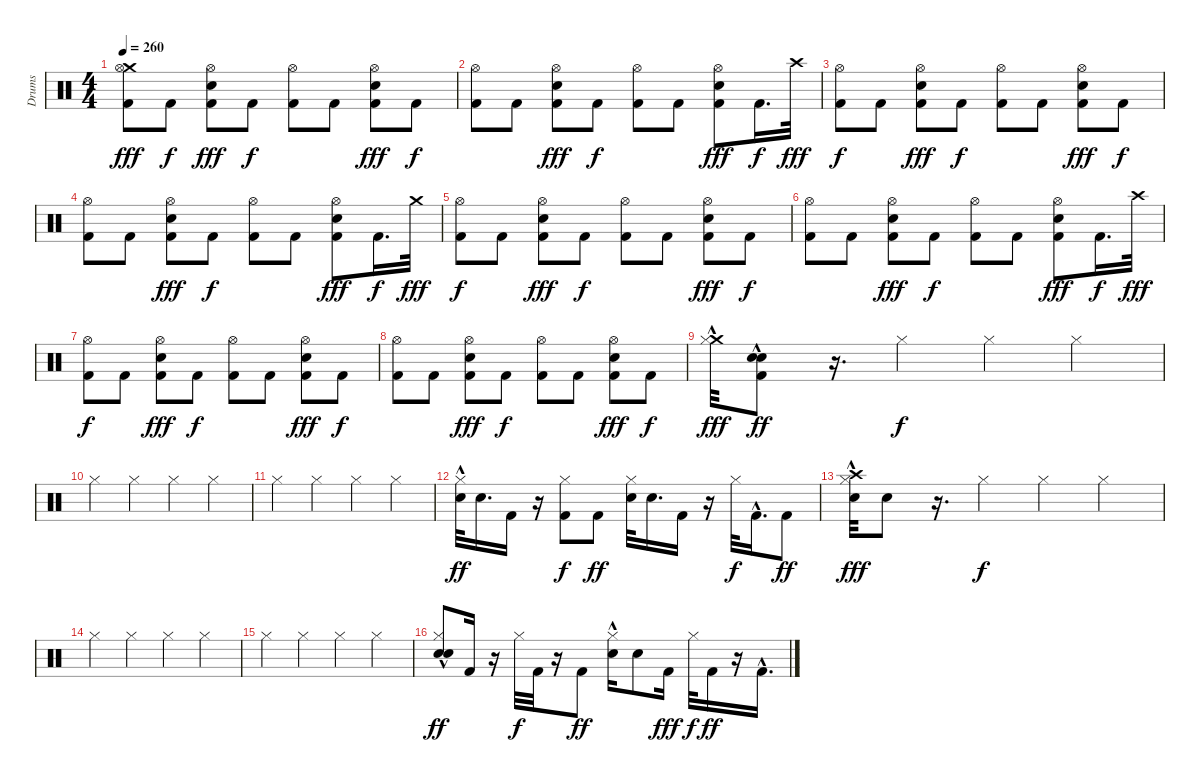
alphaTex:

\track ("Drums" "Drums") {instrument percussion}
\staff {score}
\articulation defaults
\ts (4 4)
\tempo 260
\clef neutral
\ks c
("Crash medium (hit)" "Hi-Hat (open)" "Kick (hit) 2").8{dy fff} "Kick (hit) 2".8{dy f} ("Hi-Hat (open)" "Snare (hit) 2" "Kick (hit) 2").8{dy fff} "Kick (hit) 2".8{dy f} ("Hi-Hat (open)" "Kick (hit) 2").8 "Kick (hit) 2".8 ("Hi-Hat (open)" "Snare (hit) 2" "Kick (hit) 2").8{dy fff} "Kick (hit) 2".8{dy f} |
("Hi-Hat (open)" "Kick (hit) 2").8 "Kick (hit) 2".8 ("Hi-Hat (open)" "Snare (hit) 2" "Kick (hit) 2").8{dy fff} "Kick (hit) 2".8{dy f} ("Hi-Hat (open)" "Kick (hit) 2").8 "Kick (hit) 2".8 ("Hi-Hat (open)" "Snare (hit) 2" "Kick (hit) 2").8{dy fff} "Kick (hit) 2".16{d dy f} "Crash high (hit)".32{dy fff} |
("Hi-Hat (open)" "Kick (hit) 2").8{dy f} "Kick (hit) 2".8 ("Hi-Hat (open)" "Snare (hit) 2" "Kick (hit) 2").8{dy fff} "Kick (hit) 2".8{dy f} ("Hi-Hat (open)" "Kick (hit) 2").8 "Kick (hit) 2".8 ("Hi-Hat (open)" "Snare (hit) 2" "Kick (hit) 2").8{dy fff} "Kick (hit) 2".8{dy f} |
("Hi-Hat (open)" "Kick (hit) 2").8 "Kick (hit) 2".8 ("Hi-Hat (open)" "Snare (hit) 2" "Kick (hit) 2").8{dy fff} "Kick (hit) 2".8{dy f} ("Hi-Hat (open)" "Kick (hit) 2").8 "Kick (hit) 2".8 ("Hi-Hat (open)" "Snare (hit) 2" "Kick (hit) 2").8{dy fff} "Kick (hit) 2".16{d dy f} "Crash medium (hit)".32{dy fff} |
("Hi-Hat (open)" "Kick (hit) 2").8{dy f} "Kick (hit) 2".8 ("Hi-Hat (open)" "Snare (hit) 2" "Kick (hit) 2").8{dy fff} "Kick (hit) 2".8{dy f} ("Hi-Hat (open)" "Kick (hit) 2").8 "Kick (hit) 2".8 ("Hi-Hat (open)" "Snare (hit) 2" "Kick (hit) 2").8{dy fff} "Kick (hit) 2".8{dy f} |
("Hi-Hat (open)" "Kick (hit) 2").8 "Kick (hit) 2".8 ("Hi-Hat (open)" "Snare (hit) 2" "Kick (hit) 2").8{dy fff} "Kick (hit) 2".8{dy f} ("Hi-Hat (open)" "Kick (hit) 2").8 "Kick (hit) 2".8 ("Hi-Hat (open)" "Snare (hit) 2" "Kick (hit) 2").8{dy fff} "Kick (hit) 2".16{d dy f} "Crash high (hit)".32{dy fff} |
("Hi-Hat (open)" "Kick (hit) 2").8{dy f} "Kick (hit) 2".8 ("Hi-Hat (open)" "Snare (hit) 2" "Kick (hit) 2").8{dy fff} "Kick (hit) 2".8{dy f} ("Hi-Hat (open)" "Kick (hit) 2").8 "Kick (hit) 2".8 ("Hi-Hat (open)" "Snare (hit) 2" "Kick (hit) 2").8{dy fff} "Kick (hit) 2".8{dy f} |
("Hi-Hat (open)" "Kick (hit) 2").8 "Kick (hit) 2".8 ("Hi-Hat (open)" "Snare (hit) 2" "Kick (hit) 2").8{dy fff} "Kick (hit) 2".8{dy f} ("Hi-Hat (open)" "Kick (hit) 2").8 "Kick (hit) 2".8 ("Hi-Hat (open)" "Snare (hit) 2" "Kick (hit) 2").8{dy fff} "Kick (hit) 2".8{dy f} |
("Crash medium (hit)"{hac} "Hi-Hat (closed)").32{dy fff} ("Electric Snare (hit)"{hac} "Kick (hit) 2"{hac} "Snare (hit) 2").8{dy ff} r.16{d} "Hi-Hat (closed)".4{dy f} "Hi-Hat (closed)".4 "Hi-Hat (closed)".4 |
"Hi-Hat (closed)".4 "Hi-Hat (closed)".4 "Hi-Hat (closed)".4 "Hi-Hat (closed)".4 |
"Hi-Hat (closed)".4 "Hi-Hat (closed)".4 "Hi-Hat (closed)".4 "Hi-Hat (closed)".4 |
("Electric Snare (hit)"{hac} "Hi-Hat (closed)").32{dy ff} "Snare (hit) 2".16{d} "Kick (hit) 2".16 r.16 ("Hi-Hat (closed)" "Kick (hit) 2").8{dy f} "Kick (hit) 2".8{dy ff} ("Electric Snare (hit)" "Hi-Hat (closed)").32 "Snare (hit) 2".16{d} "Kick (hit) 2".16 r.16 "Hi-Hat (closed)".32{dy f} "Kick (hit) 2"{hac}.16{d} "Kick (hit) 2".8{dy ff} |
("Electric Snare (hit)"{hac} "Hi-Hat (closed)" "Crash high (hit)").32{dy fff} "Snare (hit) 2".8 r.16{d} "Hi-Hat (closed)".4{dy f} "Hi-Hat (closed)".4 "Hi-Hat (closed)".4 |
"Hi-Hat (closed)".4 "Hi-Hat (closed)".4 "Hi-Hat (closed)".4 "Hi-Hat (closed)".4 |
"Hi-Hat (closed)".4 "Hi-Hat (closed)".4 "Hi-Hat (closed)".4 "Hi-Hat (closed)".4 |
("Electric Snare (hit)"{hac} "Hi-Hat (closed)" "Snare (hit) 2").8{dy ff} "Kick (hit) 2".16 r.16 "Hi-Hat (closed)".32{dy f} "Kick (hit) 2".32 r.16 "Kick (hit) 2".8{dy ff} ("Electric Snare (hit)"{hac} "Hi-Hat (closed)").16 "Snare (hit) 2".8 "Kick (hit) 2".16{dy fff} "Hi-Hat (closed)".32{dy f} "Kick (hit) 2".16{dy ff} r.16 "Kick (hit) 2"{hac}.16{d}
